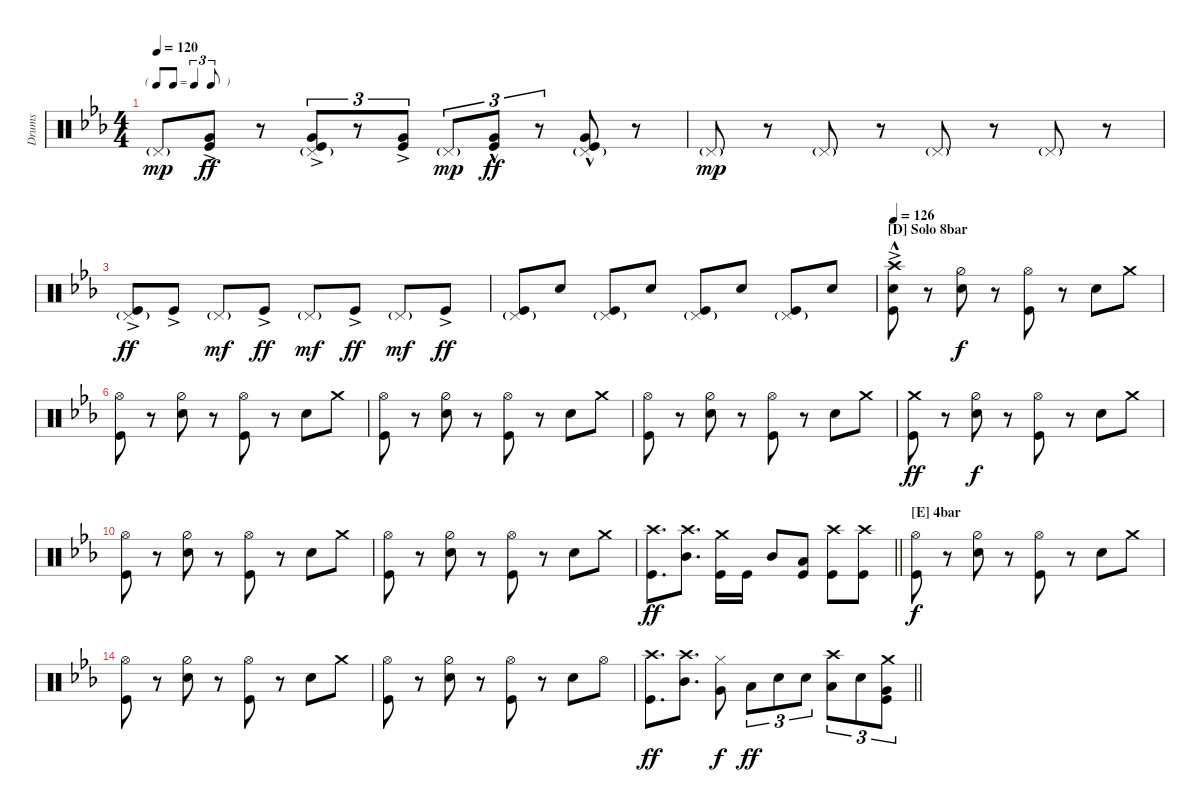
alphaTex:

\bracketExtendMode nobrackets
\otherSystemsTrackNameOrientation horizontal
\defaultBarNumberDisplay FirstOfSystem
\track ("Drumkit" "Drums") {instrument percussion}
\staff {score}
\articulation defaults
\ts (4 4)
\tf triplet8th
\tempo 120
\clef neutral
\ks cminor "Pedal Hi-Hat (hit)"{g}.8{dy mp}
("Kick (hit)"{ac} "Very Low Tom (hit)").8{dy ff} r.8 ("Kick (hit)"{ac} "Very Low Tom (hit)" "Pedal Hi-Hat (hit)"{g}).8{tu (3 2)} r.8{tu (3 2)} ("Kick (hit)"{ac} "Very Low Tom (hit)").8{tu (3 2)} "Pedal Hi-Hat (hit)"{g}.8{tu (3 2) dy mp} ("Kick (hit)"{hac} "Very Low Tom (hit)").8{tu (3 2) dy ff} r.8{tu (3 2)} ("Kick (hit)"{hac} "Very Low Tom (hit)" "Pedal Hi-Hat (hit)"{g}).8 r.8 |
"Pedal Hi-Hat (hit)"{g}.8{dy mp} r.8 "Pedal Hi-Hat (hit)"{g}.8 r.8 "Pedal Hi-Hat (hit)"{g}.8 r.8 "Pedal Hi-Hat (hit)"{g}.8 r.8 |
("Kick (hit)"{ac} "Pedal Hi-Hat (hit)"{g}).8{dy ff} "Kick (hit)"{ac}.8 "Pedal Hi-Hat (hit)"{g}.8{dy mf} "Kick (hit)"{ac}.8{dy ff} "Pedal Hi-Hat (hit)"{g}.8{dy mf} "Kick (hit)"{ac}.8{dy ff} "Pedal Hi-Hat (hit)"{g}.8{dy mf} "Kick (hit)"{ac}.8{dy ff} |
("Kick (hit)" "Pedal Hi-Hat (hit)"{g}).8 "Snare (hit) 2".8 ("Kick (hit)" "Pedal Hi-Hat (hit)"{g}).8 "Snare (hit) 2".8 ("Kick (hit)" "Pedal Hi-Hat (hit)"{g}).8 "Snare (hit) 2".8 ("Kick (hit)" "Pedal Hi-Hat (hit)"{g}).8 "Snare (hit) 2".8 |
\section ("D" "Solo 8bar")
\tempo 126
("Kick (hit)"{ac} "Crash high (hit)"{hac} "Snare (hit) 2").8 r.8 ("Hi-Hat (half)" "Snare (hit) 2").8{dy f} r.8 ("Hi-Hat (open)" "Kick (hit)").8 r.8 "Snare (hit) 2".8 "Crash medium (hit)".8 |
("Hi-Hat (open)" "Kick (hit)").8 r.8 ("Hi-Hat (half)" "Snare (hit) 2").8 r.8 ("Hi-Hat (open)" "Kick (hit)").8 r.8 "Snare (hit) 2".8 "Crash medium (hit)".8 |
("Hi-Hat (open)" "Kick (hit)").8 r.8 ("Hi-Hat (half)" "Snare (hit) 2").8 r.8 ("Hi-Hat (open)" "Kick (hit)").8 r.8 "Snare (hit) 2".8 "Crash medium (hit)".8 |
("Hi-Hat (open)" "Kick (hit)").8 r.8 ("Hi-Hat (half)" "Snare (hit) 2").8 r.8 ("Hi-Hat (open)" "Kick (hit)").8 r.8 "Snare (hit) 2".8 "Crash medium (hit)".8 |
("Kick (hit)" "Crash medium (hit)").8{dy ff} r.8 ("Hi-Hat (half)" "Snare (hit) 2").8{dy f} r.8 ("Hi-Hat (open)" "Kick (hit)").8 r.8 "Snare (hit) 2".8 "Crash medium (hit)".8 |
("Hi-Hat (open)" "Kick (hit)").8 r.8 ("Hi-Hat (half)" "Snare (hit) 2").8 r.8 ("Hi-Hat (open)" "Kick (hit)").8 r.8 "Snare (hit) 2".8 "Crash medium (hit)".8 |
("Hi-Hat (open)" "Kick (hit)").8 r.8 ("Hi-Hat (half)" "Snare (hit) 2").8 r.8 ("Hi-Hat (open)" "Kick (hit)").8 r.8 "Snare (hit) 2".8 "Crash medium (hit)".8 |
\barLineRight lightlight
("Kick (hit)" "Crash high (hit)").8{d dy ff} ("Mid Tom (hit)" "Crash high (hit)").8{d} ("Kick (hit)" "Crash medium (hit)").16 "Kick (hit)".16 "Mid Tom (hit)".8 ("Low Tom (hit)" "Kick (hit)").8 ("Kick (hit)" "Crash high (hit)").8 ("Kick (hit)" "Crash high (hit)").8 |
\section ("E" "4bar")
("Hi-Hat (open)" "Kick (hit)").8{dy f} r.8 ("Hi-Hat (half)" "Snare (hit) 2").8 r.8 ("Hi-Hat (open)" "Kick (hit)").8 r.8 "Snare (hit) 2".8 "Crash medium (hit)".8 |
("Hi-Hat (open)" "Kick (hit)").8 r.8 ("Hi-Hat (half)" "Snare (hit) 2").8 r.8 ("Hi-Hat (open)" "Kick (hit)").8 r.8 "Snare (hit) 2".8 "Crash medium (hit)".8 |
("Hi-Hat (open)" "Kick (hit)").8 r.8 ("Hi-Hat (half)" "Snare (hit) 2").8 r.8 ("Hi-Hat (open)" "Kick (hit)").8 r.8 "Snare (hit) 2".8 "Hi-Hat (open)".8 |
\barLineRight lightlight
("Kick (hit)" "Crash high (hit)").8{d dy ff} ("Mid Tom (hit)" "Crash high (hit)").8{d} ("Hi-Hat (closed)" "Very Low Tom (hit)").8{dy f} "Low Tom (hit)".8{tu (3 2) dy ff} "Snare (hit) 2".8{tu (3 2)} "Snare (hit) 2".8{tu (3 2)} ("Low Tom (hit)" "Crash high (hit)").8{tu (3 2)} "Snare (hit) 2".8{tu (3 2)} ("Very Low Tom (hit)" "Kick (hit)" "Crash medium (hit)").8{tu (3 2)}
